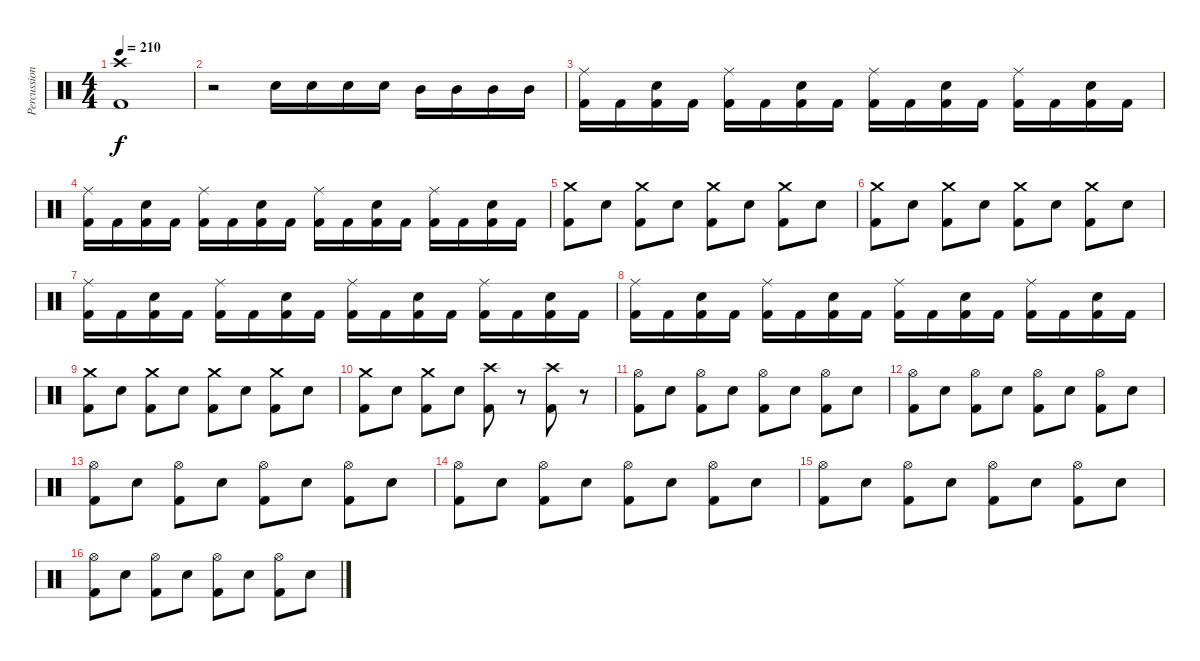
\track ("Percussion" "Percussion") {instrument percussion}
\staff {score}
\articulation defaults
\ts (4 4)
\tempo 210
\clef neutral
\ks c
("Crash high (hit)" "Kick (hit) 2").1{dy f} |
r.2 "Electric Snare (hit)".16 "Electric Snare (hit)".16 "Electric Snare (hit)".16 "Electric Snare (hit)".16 "Mid Tom (hit)".16 "Mid Tom (hit)".16 "Mid Tom (hit)".16 "Mid Tom (hit)".16 |
("Ride (middle)" "Kick (hit) 2").16 "Kick (hit) 2".16 ("Electric Snare (hit)" "Kick (hit) 2").16 "Kick (hit) 2".16 ("Ride (middle)" "Kick (hit) 2").16 "Kick (hit) 2".16 ("Electric Snare (hit)" "Kick (hit) 2").16 "Kick (hit) 2".16 ("Ride (middle)" "Kick (hit) 2").16 "Kick (hit) 2".16 ("Electric Snare (hit)" "Kick (hit) 2").16 "Kick (hit) 2".16 ("Ride (middle)" "Kick (hit) 2").16 "Kick (hit) 2".16 ("Electric Snare (hit)" "Kick (hit) 2").16 "Kick (hit) 2".16 |
("Ride (middle)" "Kick (hit) 2").16 "Kick (hit) 2".16 ("Electric Snare (hit)" "Kick (hit) 2").16 "Kick (hit) 2".16 ("Ride (middle)" "Kick (hit) 2").16 "Kick (hit) 2".16 ("Electric Snare (hit)" "Kick (hit) 2").16 "Kick (hit) 2".16 ("Ride (middle)" "Kick (hit) 2").16 "Kick (hit) 2".16 ("Electric Snare (hit)" "Kick (hit) 2").16 "Kick (hit) 2".16 ("Ride (middle)" "Kick (hit) 2").16 "Kick (hit) 2".16 ("Electric Snare (hit)" "Kick (hit) 2").16 "Kick (hit) 2".16 |
("Crash medium (hit)" "Kick (hit) 2").8 "Electric Snare (hit)".8 ("Crash medium (hit)" "Kick (hit) 2").8 "Electric Snare (hit)".8 ("Crash medium (hit)" "Kick (hit) 2").8 "Electric Snare (hit)".8 ("Crash medium (hit)" "Kick (hit) 2").8 "Electric Snare (hit)".8 |
("Crash medium (hit)" "Kick (hit) 2").8 "Electric Snare (hit)".8 ("Crash medium (hit)" "Kick (hit) 2").8 "Electric Snare (hit)".8 ("Crash medium (hit)" "Kick (hit) 2").8 "Electric Snare (hit)".8 ("Crash medium (hit)" "Kick (hit) 2").8 "Electric Snare (hit)".8 |
("Ride (middle)" "Kick (hit) 2").16 "Kick (hit) 2".16 ("Electric Snare (hit)" "Kick (hit) 2").16 "Kick (hit) 2".16 ("Ride (middle)" "Kick (hit) 2").16 "Kick (hit) 2".16 ("Electric Snare (hit)" "Kick (hit) 2").16 "Kick (hit) 2".16 ("Ride (middle)" "Kick (hit) 2").16 "Kick (hit) 2".16 ("Electric Snare (hit)" "Kick (hit) 2").16 "Kick (hit) 2".16 ("Ride (middle)" "Kick (hit) 2").16 "Kick (hit) 2".16 ("Electric Snare (hit)" "Kick (hit) 2").16 "Kick (hit) 2".16 |
("Ride (middle)" "Kick (hit) 2").16 "Kick (hit) 2".16 ("Electric Snare (hit)" "Kick (hit) 2").16 "Kick (hit) 2".16 ("Ride (middle)" "Kick (hit) 2").16 "Kick (hit) 2".16 ("Electric Snare (hit)" "Kick (hit) 2").16 "Kick (hit) 2".16 ("Ride (middle)" "Kick (hit) 2").16 "Kick (hit) 2".16 ("Electric Snare (hit)" "Kick (hit) 2").16 "Kick (hit) 2".16 ("Ride (middle)" "Kick (hit) 2").16 "Kick (hit) 2".16 ("Electric Snare (hit)" "Kick (hit) 2").16 "Kick (hit) 2".16 |
("Crash medium (hit)" "Kick (hit) 2").8 "Electric Snare (hit)".8 ("Crash medium (hit)" "Kick (hit) 2").8 "Electric Snare (hit)".8 ("Crash medium (hit)" "Kick (hit) 2").8 "Electric Snare (hit)".8 ("Crash medium (hit)" "Kick (hit) 2").8 "Electric Snare (hit)".8 |
("Crash medium (hit)" "Kick (hit) 2").8 "Electric Snare (hit)".8 ("Crash medium (hit)" "Kick (hit) 2").8 "Electric Snare (hit)".8 ("Crash high (hit)" "Kick (hit) 2").8 r.8 ("Crash high (hit)" "Kick (hit) 2").8 r.8 |
("Hi-Hat (open)" "Kick (hit) 2").8 "Electric Snare (hit)".8 ("Hi-Hat (open)" "Kick (hit) 2").8 "Electric Snare (hit)".8 ("Hi-Hat (open)" "Kick (hit) 2").8 "Electric Snare (hit)".8 ("Hi-Hat (open)" "Kick (hit) 2").8 "Electric Snare (hit)".8 |
("Hi-Hat (open)" "Kick (hit) 2").8 "Electric Snare (hit)".8 ("Hi-Hat (open)" "Kick (hit) 2").8 "Electric Snare (hit)".8 ("Hi-Hat (open)" "Kick (hit) 2").8 "Electric Snare (hit)".8 ("Hi-Hat (open)" "Kick (hit) 2").8 "Electric Snare (hit)".8 |
("Hi-Hat (open)" "Kick (hit) 2").8 "Electric Snare (hit)".8 ("Hi-Hat (open)" "Kick (hit) 2").8 "Electric Snare (hit)".8 ("Hi-Hat (open)" "Kick (hit) 2").8 "Electric Snare (hit)".8 ("Hi-Hat (open)" "Kick (hit) 2").8 "Electric Snare (hit)".8 |
("Hi-Hat (open)" "Kick (hit) 2").8 "Electric Snare (hit)".8 ("Hi-Hat (open)" "Kick (hit) 2").8 "Electric Snare (hit)".8 ("Hi-Hat (open)" "Kick (hit) 2").8 "Electric Snare (hit)".8 ("Hi-Hat (open)" "Kick (hit) 2").8 "Electric Snare (hit)".8 |
("Hi-Hat (open)" "Kick (hit) 2").8 "Electric Snare (hit)".8 ("Hi-Hat (open)" "Kick (hit) 2").8 "Electric Snare (hit)".8 ("Hi-Hat (open)" "Kick (hit) 2").8 "Electric Snare (hit)".8 ("Hi-Hat (open)" "Kick (hit) 2").8 "Electric Snare (hit)".8 |
("Hi-Hat (open)" "Kick (hit) 2").8 "Electric Snare (hit)".8 ("Hi-Hat (open)" "Kick (hit) 2").8 "Electric Snare (hit)".8 ("Hi-Hat (open)" "Kick (hit) 2").8 "Electric Snare (hit)".8 ("Hi-Hat (open)" "Kick (hit) 2").8 "Electric Snare (hit)".8
